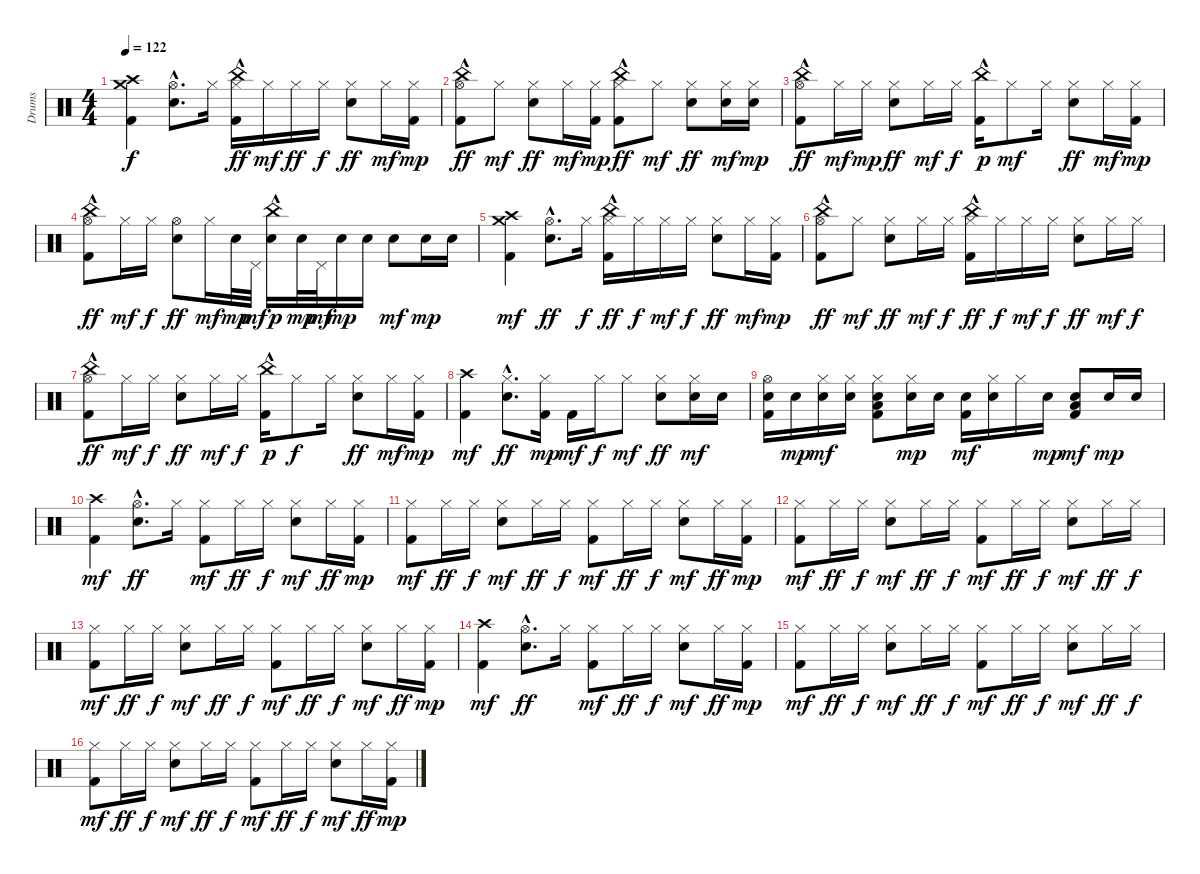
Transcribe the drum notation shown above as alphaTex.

\track ("Drums" "Drums") {instrument percussion}
\staff {score}
\articulation defaults
\ts (4 4)
\tempo 122
\clef neutral
\ks c
("Kick (hit) 2" "Crash high (hit)" "Crash medium (hit)").4{dy f} ("Snare (hit) 2"{hac} "Hi-Hat (open)"{hac}).8{d} "Hi-Hat (closed)".16 ("Kick (hit) 2" "China (hit)"{hac} "Hi-Hat (closed)").16{dy ff} "Hi-Hat (closed)".16{dy mf} "Hi-Hat (closed)".16{dy ff} "Hi-Hat (closed)".16{dy f} ("Snare (hit) 2" "Hi-Hat (closed)").8{dy ff} "Hi-Hat (closed)".16{dy mf} ("Hi-Hat (closed)" "Kick (hit) 2").16{dy mp} |
("Kick (hit) 2" "China (hit)"{hac} "Hi-Hat (open)").8{dy ff} "Hi-Hat (closed)".8{dy mf} ("Snare (hit) 2" "Hi-Hat (closed)").8{dy ff} "Hi-Hat (closed)".16{dy mf} ("Hi-Hat (closed)" "Kick (hit) 2").16{dy mp} ("Kick (hit) 2" "China (hit)"{hac} "Hi-Hat (closed)").8{dy ff} "Hi-Hat (closed)".8{dy mf} ("Snare (hit) 2" "Hi-Hat (closed)").8{dy ff} ("Snare (hit) 2" "Hi-Hat (closed)").16{dy mf} ("Snare (hit) 2" "Hi-Hat (closed)").16{dy mp} |
("Kick (hit) 2" "China (hit)"{hac} "Hi-Hat (open)").8{dy ff} "Hi-Hat (closed)".16{dy mf} "Hi-Hat (closed)".16{dy mp} ("Snare (hit) 2" "Hi-Hat (closed)").8{dy ff} "Hi-Hat (closed)".16{dy mf} "Hi-Hat (closed)".16{dy f} ("Kick (hit) 2" "China (hit)"{hac}).16{dy p} "Hi-Hat (closed)".8{dy mf} "Hi-Hat (closed)".16 ("Snare (hit) 2" "Hi-Hat (closed)").8{dy ff} "Hi-Hat (closed)".16{dy mf} ("Hi-Hat (closed)" "Kick (hit) 2").16{dy mp} |
("Kick (hit) 2" "China (hit)"{hac} "Hi-Hat (open)").8{dy ff} "Hi-Hat (closed)".16{dy mf} "Hi-Hat (closed)".16{dy f} ("Snare (hit) 2" "Hi-Hat (open)").8{dy ff} "Hi-Hat (closed)".16{dy mf} "Snare (hit) 2".32{dy mp} "Pedal Hi-Hat (hit)".32{dy mf} ("Snare (hit) 2" "China (hit)"{hac}).16{dy p} "Snare (hit) 2".32{dy mp} "Pedal Hi-Hat (hit)".32{dy mf} "Snare (hit) 2".16{dy mp} "Snare (hit) 2".16 "Snare (hit) 2".8{dy mf} "Snare (hit) 2".16{dy mp} "Snare (hit) 2".16 |
("Kick (hit) 2" "Crash medium (hit)" "Crash high (hit)").4{dy mf} ("Snare (hit) 2"{hac} "Hi-Hat (open)"{hac}).8{d dy ff} "Hi-Hat (closed)".16{dy f} ("Kick (hit) 2" "China (hit)"{hac} "Hi-Hat (closed)").16{dy ff} "Hi-Hat (closed)".16{dy f} "Hi-Hat (closed)".16{dy mf} "Hi-Hat (closed)".16{dy f} ("Snare (hit) 2" "Hi-Hat (closed)").8{dy ff} "Hi-Hat (closed)".16{dy mf} ("Hi-Hat (closed)" "Kick (hit) 2").16{dy mp} |
("Kick (hit) 2" "China (hit)"{hac} "Hi-Hat (open)").8{dy ff} "Hi-Hat (closed)".8{dy mf} ("Snare (hit) 2" "Hi-Hat (closed)").8{dy ff} "Hi-Hat (closed)".16{dy mf} "Hi-Hat (closed)".16{dy f} ("Kick (hit) 2" "China (hit)"{hac} "Hi-Hat (closed)").16{dy ff} "Hi-Hat (closed)".16{dy f} "Hi-Hat (closed)".16{dy mf} "Hi-Hat (closed)".16{dy f} ("Snare (hit) 2" "Hi-Hat (closed)").8{dy ff} "Hi-Hat (closed)".16{dy mf} "Hi-Hat (closed)".16{dy f} |
("Kick (hit) 2" "China (hit)"{hac} "Hi-Hat (open)").8{dy ff} "Hi-Hat (closed)".16{dy mf} "Hi-Hat (closed)".16{dy f} ("Snare (hit) 2" "Hi-Hat (closed)").8{dy ff} "Hi-Hat (closed)".16{dy mf} "Hi-Hat (closed)".16{dy f} ("Kick (hit) 2" "China (hit)"{hac}).16{dy p} "Hi-Hat (closed)".8{dy f} "Hi-Hat (closed)".16 ("Snare (hit) 2" "Hi-Hat (closed)").8{dy ff} "Hi-Hat (closed)".16{dy mf} ("Hi-Hat (closed)" "Kick (hit) 2").16{dy mp} |
("Kick (hit) 2" "Crash high (hit)").4{dy mf} ("Snare (hit) 2"{hac} "Hi-Hat (closed)"{hac}).8{d dy ff} ("Hi-Hat (closed)" "Kick (hit) 2").16{dy mp} "Kick (hit) 2".16{dy mf} "Hi-Hat (closed)".16{dy f} "Hi-Hat (closed)".8{dy mf} ("Snare (hit) 2" "Hi-Hat (closed)").8{dy ff} ("Hi-Hat (closed)" "Snare (hit) 2").16{dy mf} "Snare (hit) 2".16 |
("Snare (hit) 2" "Kick (hit) 2" "Hi-Hat (open)").16 "Snare (hit) 2".16{dy mp} ("Hi-Hat (closed)" "Snare (hit) 2").16{dy mf} ("Snare (hit) 2" "Hi-Hat (closed)").16 ("Snare (hit) 2" "Low Floor Tom (hit)" "Hi-Hat (closed)" "Kick (hit) 2").8 ("Hi-Hat (closed)" "Snare (hit) 2").16{dy mp} "Snare (hit) 2".16 ("Snare (hit) 2" "Kick (hit) 2").16{dy mf} ("Snare (hit) 2" "Hi-Hat (closed)").16 "Hi-Hat (closed)".16 "Snare (hit) 2".16{dy mp} ("Snare (hit) 2" "Low Floor Tom (hit)" "Kick (hit) 2").8{dy mf} "Snare (hit) 2".16{dy mp} "Snare (hit) 2".16 |
("Kick (hit) 2" "Crash high (hit)").4{dy mf} ("Snare (hit) 2"{hac} "Hi-Hat (open)"{hac}).8{d dy ff} "Hi-Hat (closed)".16 ("Hi-Hat (closed)" "Kick (hit) 2").8{dy mf} "Hi-Hat (closed)".16{dy ff} "Hi-Hat (closed)".16{dy f} ("Hi-Hat (closed)" "Snare (hit) 2").8{dy mf} "Hi-Hat (closed)".16{dy ff} ("Hi-Hat (closed)" "Kick (hit) 2").16{dy mp} |
("Hi-Hat (closed)" "Kick (hit) 2").8{dy mf} "Hi-Hat (closed)".16{dy ff} "Hi-Hat (closed)".16{dy f} ("Hi-Hat (closed)" "Snare (hit) 2").8{dy mf} "Hi-Hat (closed)".16{dy ff} "Hi-Hat (closed)".16{dy f} ("Hi-Hat (closed)" "Kick (hit) 2").8{dy mf} "Hi-Hat (closed)".16{dy ff} "Hi-Hat (closed)".16{dy f} ("Hi-Hat (closed)" "Snare (hit) 2").8{dy mf} "Hi-Hat (closed)".16{dy ff} ("Hi-Hat (closed)" "Kick (hit) 2").16{dy mp} |
("Hi-Hat (closed)" "Kick (hit) 2").8{dy mf} "Hi-Hat (closed)".16{dy ff} "Hi-Hat (closed)".16{dy f} ("Hi-Hat (closed)" "Snare (hit) 2").8{dy mf} "Hi-Hat (closed)".16{dy ff} "Hi-Hat (closed)".16{dy f} ("Hi-Hat (closed)" "Kick (hit) 2").8{dy mf} "Hi-Hat (closed)".16{dy ff} "Hi-Hat (closed)".16{dy f} ("Hi-Hat (closed)" "Snare (hit) 2").8{dy mf} "Hi-Hat (closed)".16{dy ff} "Hi-Hat (closed)".16{dy f} |
("Hi-Hat (closed)" "Kick (hit) 2").8{dy mf} "Hi-Hat (closed)".16{dy ff} "Hi-Hat (closed)".16{dy f} ("Hi-Hat (closed)" "Snare (hit) 2").8{dy mf} "Hi-Hat (closed)".16{dy ff} "Hi-Hat (closed)".16{dy f} ("Hi-Hat (closed)" "Kick (hit) 2").8{dy mf} "Hi-Hat (closed)".16{dy ff} "Hi-Hat (closed)".16{dy f} ("Hi-Hat (closed)" "Snare (hit) 2").8{dy mf} "Hi-Hat (closed)".16{dy ff} ("Kick (hit) 2" "Hi-Hat (closed)").16{dy mp} |
("Kick (hit) 2" "Crash high (hit)").4{dy mf} ("Snare (hit) 2"{hac} "Hi-Hat (open)"{hac}).8{d dy ff} "Hi-Hat (closed)".16 ("Hi-Hat (closed)" "Kick (hit) 2").8{dy mf} "Hi-Hat (closed)".16{dy ff} "Hi-Hat (closed)".16{dy f} ("Hi-Hat (closed)" "Snare (hit) 2").8{dy mf} "Hi-Hat (closed)".16{dy ff} ("Hi-Hat (closed)" "Kick (hit) 2").16{dy mp} |
("Hi-Hat (closed)" "Kick (hit) 2").8{dy mf} "Hi-Hat (closed)".16{dy ff} "Hi-Hat (closed)".16{dy f} ("Hi-Hat (closed)" "Snare (hit) 2").8{dy mf} "Hi-Hat (closed)".16{dy ff} "Hi-Hat (closed)".16{dy f} ("Hi-Hat (closed)" "Kick (hit) 2").8{dy mf} "Hi-Hat (closed)".16{dy ff} "Hi-Hat (closed)".16{dy f} ("Hi-Hat (closed)" "Snare (hit) 2").8{dy mf} "Hi-Hat (closed)".16{dy ff} "Hi-Hat (closed)".16{dy f} |
("Hi-Hat (closed)" "Kick (hit) 2").8{dy mf} "Hi-Hat (closed)".16{dy ff} "Hi-Hat (closed)".16{dy f} ("Hi-Hat (closed)" "Snare (hit) 2").8{dy mf} "Hi-Hat (closed)".16{dy ff} "Hi-Hat (closed)".16{dy f} ("Hi-Hat (closed)" "Kick (hit) 2").8{dy mf} "Hi-Hat (closed)".16{dy ff} "Hi-Hat (closed)".16{dy f} ("Hi-Hat (closed)" "Snare (hit) 2").8{dy mf} "Hi-Hat (closed)".16{dy ff} ("Hi-Hat (closed)" "Kick (hit) 2").16{dy mp}
